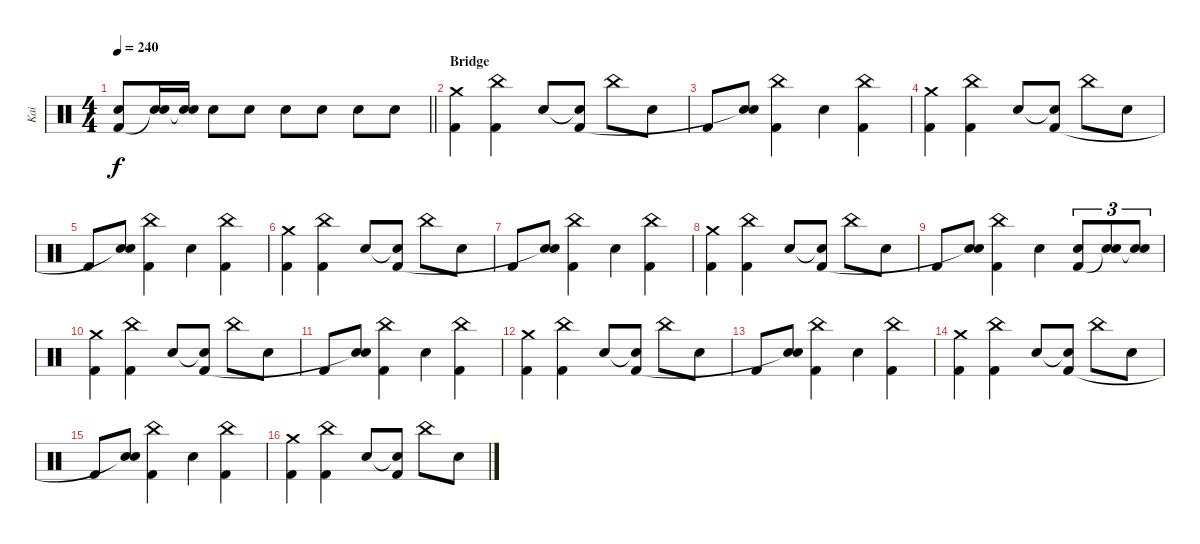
\track ("Kai" "Kai") {instrument percussion}
\staff {score}
\articulation defaults
\ts (4 4)
\tempo 240
\clef neutral
\barLineRight lightlight
\ks c
("Snare (hit)"{t} "Kick (hit) 2").8{dy f} ("Snare (hit) 2" "Snare (hit)"{t}).16 ("Snare (hit) 2" "Snare (hit)"{t}).16 "Snare (hit) 2".8 "Snare (hit) 2".8 "Snare (hit) 2".8 "Snare (hit) 2".8 "Snare (hit) 2".8 "Snare (hit) 2".8 |
\section ("" "Bridge")
("Crash medium (hit)" "Kick (hit) 2").4 ("China (hit)" "Kick (hit) 2").4 "Snare (hit) 2".8 ("Snare (hit)"{t} "Kick (hit) 2").8 "China (hit)".8 "Snare (hit) 2".8 |
"Kick (hit) 2".8 ("Snare (hit) 2" "Snare (hit)"{t}).8 ("China (hit)" "Kick (hit) 2").4 "Snare (hit) 2".4 ("China (hit)" "Kick (hit) 2").4 |
("Crash medium (hit)" "Kick (hit) 2").4 ("China (hit)" "Kick (hit) 2").4 "Snare (hit) 2".8 ("Snare (hit)"{t} "Kick (hit) 2").8 "China (hit)".8 "Snare (hit) 2".8 |
"Kick (hit) 2".8 ("Snare (hit) 2" "Snare (hit)"{t}).8 ("China (hit)" "Kick (hit) 2").4 "Snare (hit) 2".4 ("China (hit)" "Kick (hit) 2").4 |
("Crash medium (hit)" "Kick (hit) 2").4 ("China (hit)" "Kick (hit) 2").4 "Snare (hit) 2".8 ("Snare (hit)"{t} "Kick (hit) 2").8 "China (hit)".8 "Snare (hit) 2".8 |
"Kick (hit) 2".8 ("Snare (hit) 2" "Snare (hit)"{t}).8 ("China (hit)" "Kick (hit) 2").4 "Snare (hit) 2".4 ("China (hit)" "Kick (hit) 2").4 |
("Crash medium (hit)" "Kick (hit) 2").4 ("China (hit)" "Kick (hit) 2").4 "Snare (hit) 2".8 ("Snare (hit)"{t} "Kick (hit) 2").8 "China (hit)".8 "Snare (hit) 2".8 |
"Kick (hit) 2".8 ("Snare (hit) 2" "Snare (hit)"{t}).8 ("China (hit)" "Kick (hit) 2").4 "Snare (hit) 2".4 ("Snare (hit) 2" "Kick (hit) 2").8{tu (3 2)} ("Snare (hit) 2" "Snare (hit)"{t}).8{tu (3 2)} ("Snare (hit) 2" "Snare (hit)"{t}).8{tu (3 2)} |
("Crash medium (hit)" "Kick (hit) 2").4 ("China (hit)" "Kick (hit) 2").4 "Snare (hit) 2".8 ("Snare (hit)"{t} "Kick (hit) 2").8 "China (hit)".8 "Snare (hit) 2".8 |
"Kick (hit) 2".8 ("Snare (hit) 2" "Snare (hit)"{t}).8 ("China (hit)" "Kick (hit) 2").4 "Snare (hit) 2".4 ("China (hit)" "Kick (hit) 2").4 |
("Crash medium (hit)" "Kick (hit) 2").4 ("China (hit)" "Kick (hit) 2").4 "Snare (hit) 2".8 ("Snare (hit)"{t} "Kick (hit) 2").8 "China (hit)".8 "Snare (hit) 2".8 |
"Kick (hit) 2".8 ("Snare (hit) 2" "Snare (hit)"{t}).8 ("China (hit)" "Kick (hit) 2").4 "Snare (hit) 2".4 ("China (hit)" "Kick (hit) 2").4 |
("Crash medium (hit)" "Kick (hit) 2").4 ("China (hit)" "Kick (hit) 2").4 "Snare (hit) 2".8 ("Snare (hit)"{t} "Kick (hit) 2").8 "China (hit)".8 "Snare (hit) 2".8 |
"Kick (hit) 2".8 ("Snare (hit) 2" "Snare (hit)"{t}).8 ("China (hit)" "Kick (hit) 2").4 "Snare (hit) 2".4 ("China (hit)" "Kick (hit) 2").4 |
("Crash medium (hit)" "Kick (hit) 2").4 ("China (hit)" "Kick (hit) 2").4 "Snare (hit) 2".8 ("Snare (hit)"{t} "Kick (hit) 2").8 "China (hit)".8 "Snare (hit) 2".8
